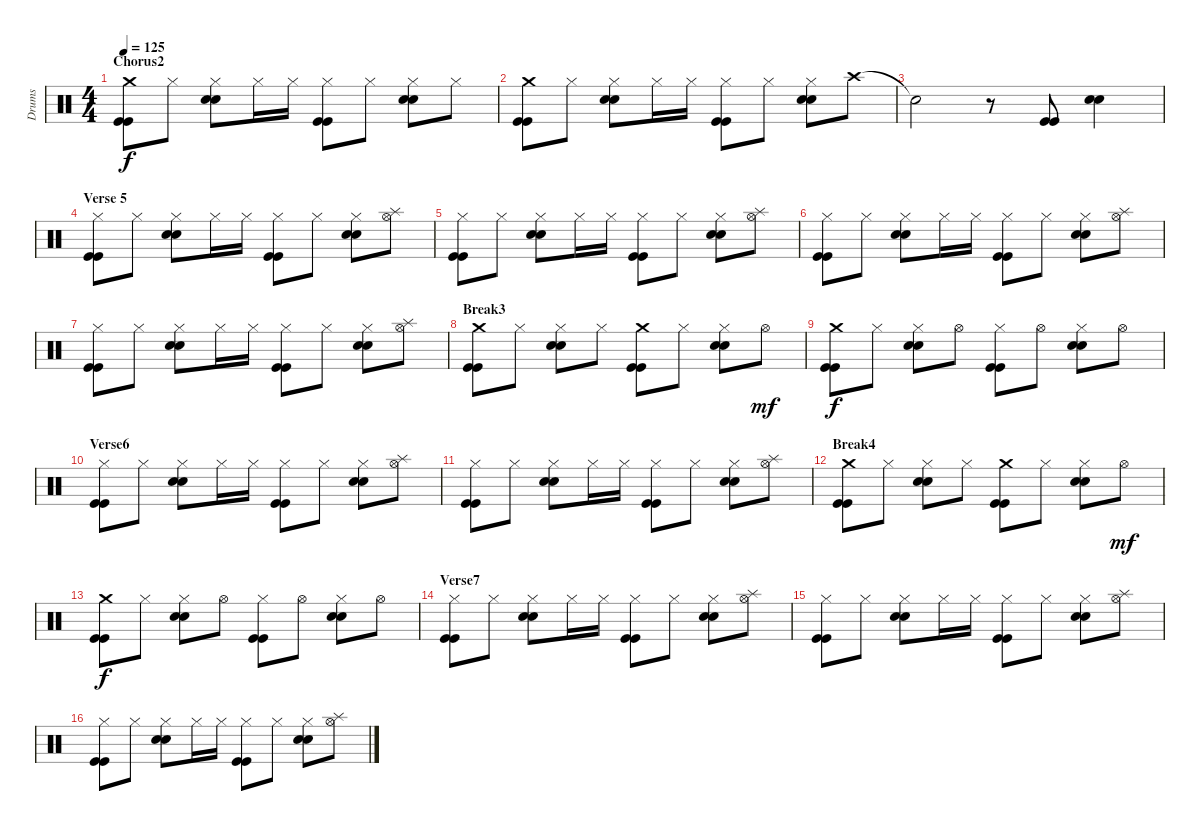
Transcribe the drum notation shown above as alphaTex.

\track ("Drums" "Drums") {instrument percussion}
\staff {score}
\articulation defaults
\ts (4 4)
\section ("" "Chorus2")
\tempo 125
\clef neutral
\ks c
("Crash medium (hit)" "Kick (hit)" "Kick (hit)").8{dy f} "Hi-Hat (closed)".8 ("Hi-Hat (closed)" "Electric Snare (hit)" "Electric Snare (hit)").8 "Hi-Hat (closed)".16 "Hi-Hat (closed)".16 ("Hi-Hat (closed)" "Kick (hit)" "Kick (hit)").8 "Hi-Hat (closed)".8 ("Hi-Hat (closed)" "Electric Snare (hit)" "Electric Snare (hit)").8 "Hi-Hat (closed)".8 |
("Crash medium (hit)" "Kick (hit)" "Kick (hit)").8 "Hi-Hat (closed)".8 ("Hi-Hat (closed)" "Electric Snare (hit)" "Electric Snare (hit)").8 "Hi-Hat (closed)".16 "Hi-Hat (closed)".16 ("Hi-Hat (closed)" "Kick (hit)" "Kick (hit)").8 "Hi-Hat (closed)".8 ("Hi-Hat (closed)" "Electric Snare (hit)" "Electric Snare (hit)").8 "Crash high (hit)".8 |
"Snare (hit)"{t}.2 r.8 ("Kick (hit)" "Kick (hit)").8 ("Electric Snare (hit)" "Electric Snare (hit)").4 |
\section ("" "Verse 5")
("Hi-Hat (closed)" "Kick (hit)" "Kick (hit)").8 "Hi-Hat (closed)".8 ("Hi-Hat (closed)" "Electric Snare (hit)" "Electric Snare (hit)").8 "Hi-Hat (closed)".16 "Hi-Hat (closed)".16 ("Hi-Hat (closed)" "Kick (hit)" "Kick (hit)").8 "Hi-Hat (closed)".8 ("Hi-Hat (closed)" "Electric Snare (hit)" "Electric Snare (hit)").8 ("Hi-Hat (open)" "Splash (hit)").8 |
("Hi-Hat (closed)" "Kick (hit)" "Kick (hit)").8 "Hi-Hat (closed)".8 ("Hi-Hat (closed)" "Electric Snare (hit)" "Electric Snare (hit)").8 "Hi-Hat (closed)".16 "Hi-Hat (closed)".16 ("Hi-Hat (closed)" "Kick (hit)" "Kick (hit)").8 "Hi-Hat (closed)".8 ("Hi-Hat (closed)" "Electric Snare (hit)" "Electric Snare (hit)").8 ("Hi-Hat (open)" "Splash (hit)").8 |
("Hi-Hat (closed)" "Kick (hit)" "Kick (hit)").8 "Hi-Hat (closed)".8 ("Hi-Hat (closed)" "Electric Snare (hit)" "Electric Snare (hit)").8 "Hi-Hat (closed)".16 "Hi-Hat (closed)".16 ("Hi-Hat (closed)" "Kick (hit)" "Kick (hit)").8 "Hi-Hat (closed)".8 ("Hi-Hat (closed)" "Electric Snare (hit)" "Electric Snare (hit)").8 ("Hi-Hat (open)" "Splash (hit)").8 |
("Hi-Hat (closed)" "Kick (hit)" "Kick (hit)").8 "Hi-Hat (closed)".8 ("Hi-Hat (closed)" "Electric Snare (hit)" "Electric Snare (hit)").8 "Hi-Hat (closed)".16 "Hi-Hat (closed)".16 ("Hi-Hat (closed)" "Kick (hit)" "Kick (hit)").8 "Hi-Hat (closed)".8 ("Hi-Hat (closed)" "Electric Snare (hit)" "Electric Snare (hit)").8 ("Hi-Hat (open)" "Splash (hit)").8 |
\section ("" "Break3")
("Crash medium (hit)" "Kick (hit)" "Kick (hit)").8 "Hi-Hat (closed)".8 ("Hi-Hat (closed)" "Electric Snare (hit)" "Electric Snare (hit)").8 "Hi-Hat (closed)".8 ("Crash medium (hit)" "Kick (hit)" "Kick (hit)").8 "Hi-Hat (closed)".8 ("Hi-Hat (closed)" "Electric Snare (hit)" "Electric Snare (hit)").8 "Hi-Hat (open)".8{dy mf} |
("Crash medium (hit)" "Kick (hit)" "Kick (hit)").8{dy f} "Hi-Hat (closed)".8 ("Hi-Hat (closed)" "Electric Snare (hit)" "Electric Snare (hit)").8 "Hi-Hat (open)".8 ("Hi-Hat (closed)" "Kick (hit)" "Kick (hit)").8 "Hi-Hat (open)".8 ("Hi-Hat (closed)" "Electric Snare (hit)" "Electric Snare (hit)").8 "Hi-Hat (open)".8 |
\section ("" "Verse6")
("Hi-Hat (closed)" "Kick (hit)" "Kick (hit)").8 "Hi-Hat (closed)".8 ("Hi-Hat (closed)" "Electric Snare (hit)" "Electric Snare (hit)").8 "Hi-Hat (closed)".16 "Hi-Hat (closed)".16 ("Hi-Hat (closed)" "Kick (hit)" "Kick (hit)").8 "Hi-Hat (closed)".8 ("Hi-Hat (closed)" "Electric Snare (hit)" "Electric Snare (hit)").8 ("Hi-Hat (open)" "Splash (hit)").8 |
("Hi-Hat (closed)" "Kick (hit)" "Kick (hit)").8 "Hi-Hat (closed)".8 ("Hi-Hat (closed)" "Electric Snare (hit)" "Electric Snare (hit)").8 "Hi-Hat (closed)".16 "Hi-Hat (closed)".16 ("Hi-Hat (closed)" "Kick (hit)" "Kick (hit)").8 "Hi-Hat (closed)".8 ("Hi-Hat (closed)" "Electric Snare (hit)" "Electric Snare (hit)").8 ("Hi-Hat (open)" "Splash (hit)").8 |
\section ("" "Break4")
("Crash medium (hit)" "Kick (hit)" "Kick (hit)").8 "Hi-Hat (closed)".8 ("Hi-Hat (closed)" "Electric Snare (hit)" "Electric Snare (hit)").8 "Hi-Hat (closed)".8 ("Crash medium (hit)" "Kick (hit)" "Kick (hit)").8 "Hi-Hat (closed)".8 ("Hi-Hat (closed)" "Electric Snare (hit)" "Electric Snare (hit)").8 "Hi-Hat (open)".8{dy mf} |
("Crash medium (hit)" "Kick (hit)" "Kick (hit)").8{dy f} "Hi-Hat (closed)".8 ("Hi-Hat (closed)" "Electric Snare (hit)" "Electric Snare (hit)").8 "Hi-Hat (open)".8 ("Hi-Hat (closed)" "Kick (hit)" "Kick (hit)").8 "Hi-Hat (open)".8 ("Hi-Hat (closed)" "Electric Snare (hit)" "Electric Snare (hit)").8 "Hi-Hat (open)".8 |
\section ("" "Verse7")
("Hi-Hat (closed)" "Kick (hit)" "Kick (hit)").8 "Hi-Hat (closed)".8 ("Hi-Hat (closed)" "Electric Snare (hit)" "Electric Snare (hit)").8 "Hi-Hat (closed)".16 "Hi-Hat (closed)".16 ("Hi-Hat (closed)" "Kick (hit)" "Kick (hit)").8 "Hi-Hat (closed)".8 ("Hi-Hat (closed)" "Electric Snare (hit)" "Electric Snare (hit)").8 ("Hi-Hat (open)" "Splash (hit)").8 |
("Hi-Hat (closed)" "Kick (hit)" "Kick (hit)").8 "Hi-Hat (closed)".8 ("Hi-Hat (closed)" "Electric Snare (hit)" "Electric Snare (hit)").8 "Hi-Hat (closed)".16 "Hi-Hat (closed)".16 ("Hi-Hat (closed)" "Kick (hit)" "Kick (hit)").8 "Hi-Hat (closed)".8 ("Hi-Hat (closed)" "Electric Snare (hit)" "Electric Snare (hit)").8 ("Hi-Hat (open)" "Splash (hit)").8 |
("Hi-Hat (closed)" "Kick (hit)" "Kick (hit)").8 "Hi-Hat (closed)".8 ("Hi-Hat (closed)" "Electric Snare (hit)" "Electric Snare (hit)").8 "Hi-Hat (closed)".16 "Hi-Hat (closed)".16 ("Hi-Hat (closed)" "Kick (hit)" "Kick (hit)").8 "Hi-Hat (closed)".8 ("Hi-Hat (closed)" "Electric Snare (hit)" "Electric Snare (hit)").8 ("Hi-Hat (open)" "Splash (hit)").8
